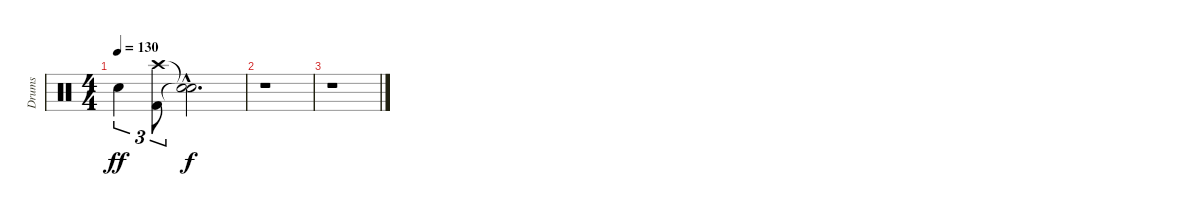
\track ("Drums" "Drums") {instrument percussion}
\staff {score}
\articulation defaults
\ts (4 4)
\tempo 130
\clef neutral
\ks c "Snare (hit) 2".4{tu (3 2) dy ff}
("Kick (hit) 2" "Crash high (hit)").8{tu (3 2)} ("Snare (hit)"{hac t} "Snare (hit)"{hac t}).2{d dy f} |
r.1 |
r.1
